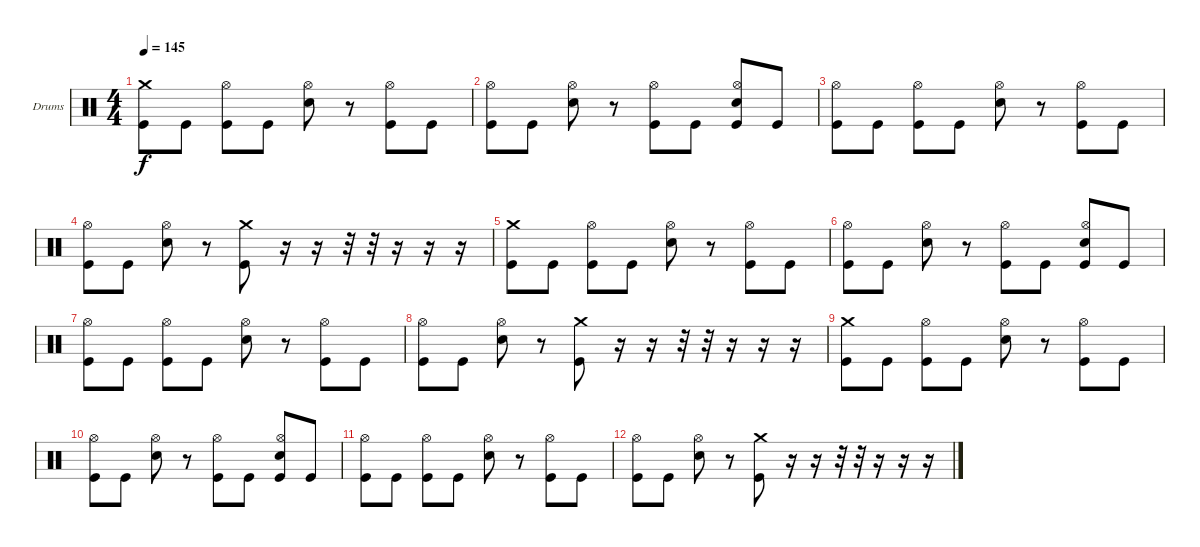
\bracketExtendMode groupsimilarinstruments
\firstSystemTrackNameOrientation horizontal
\otherSystemsTrackNameOrientation horizontal
\track ("Drumkit" "Drums") {instrument percussion}
\staff {score}
\articulation defaults
\ts (4 4)
\tempo 145
\clef neutral
\ks c
("Crash medium (hit)" "Kick (hit)").8{dy f} "Kick (hit)".8 ("Hi-Hat (open)" "Kick (hit)").8 "Kick (hit)".8 ("Hi-Hat (open)" "Snare (hit) 2").8 r.8 ("Hi-Hat (open)" "Kick (hit)").8 "Kick (hit)".8 |
("Hi-Hat (open)" "Kick (hit)").8 "Kick (hit)".8 ("Hi-Hat (open)" "Snare (hit) 2").8 r.8 ("Hi-Hat (open)" "Kick (hit)").8 "Kick (hit)".8 ("Hi-Hat (open)" "Snare (hit) 2" "Kick (hit)").8 "Kick (hit)".8 |
("Hi-Hat (open)" "Kick (hit)").8 "Kick (hit)".8 ("Hi-Hat (open)" "Kick (hit)").8 "Kick (hit)".8 ("Hi-Hat (open)" "Snare (hit) 2").8 r.8 ("Hi-Hat (open)" "Kick (hit)").8 "Kick (hit)".8 |
("Hi-Hat (open)" "Kick (hit)").8 "Kick (hit)".8 ("Hi-Hat (open)" "Snare (hit) 2").8 r.8 ("Crash medium (hit)" "Kick (hit)").8 r.16 r.16 r.32 r.32 r.16 r.16 r.16 |
("Crash medium (hit)" "Kick (hit)").8 "Kick (hit)".8 ("Hi-Hat (open)" "Kick (hit)").8 "Kick (hit)".8 ("Hi-Hat (open)" "Snare (hit) 2").8 r.8 ("Hi-Hat (open)" "Kick (hit)").8 "Kick (hit)".8 |
("Hi-Hat (open)" "Kick (hit)").8 "Kick (hit)".8 ("Hi-Hat (open)" "Snare (hit) 2").8 r.8 ("Hi-Hat (open)" "Kick (hit)").8 "Kick (hit)".8 ("Hi-Hat (open)" "Snare (hit) 2" "Kick (hit)").8 "Kick (hit)".8 |
("Hi-Hat (open)" "Kick (hit)").8 "Kick (hit)".8 ("Hi-Hat (open)" "Kick (hit)").8 "Kick (hit)".8 ("Hi-Hat (open)" "Snare (hit) 2").8 r.8 ("Hi-Hat (open)" "Kick (hit)").8 "Kick (hit)".8 |
("Hi-Hat (open)" "Kick (hit)").8 "Kick (hit)".8 ("Hi-Hat (open)" "Snare (hit) 2").8 r.8 ("Crash medium (hit)" "Kick (hit)").8 r.16 r.16 r.32 r.32 r.16 r.16 r.16 |
("Crash medium (hit)" "Kick (hit)").8 "Kick (hit)".8 ("Hi-Hat (open)" "Kick (hit)").8 "Kick (hit)".8 ("Hi-Hat (open)" "Snare (hit) 2").8 r.8 ("Hi-Hat (open)" "Kick (hit)").8 "Kick (hit)".8 |
("Hi-Hat (open)" "Kick (hit)").8 "Kick (hit)".8 ("Hi-Hat (open)" "Snare (hit) 2").8 r.8 ("Hi-Hat (open)" "Kick (hit)").8 "Kick (hit)".8 ("Hi-Hat (open)" "Snare (hit) 2" "Kick (hit)").8 "Kick (hit)".8 |
("Hi-Hat (open)" "Kick (hit)").8 "Kick (hit)".8 ("Hi-Hat (open)" "Kick (hit)").8 "Kick (hit)".8 ("Hi-Hat (open)" "Snare (hit) 2").8 r.8 ("Hi-Hat (open)" "Kick (hit)").8 "Kick (hit)".8 |
("Hi-Hat (open)" "Kick (hit)").8 "Kick (hit)".8 ("Hi-Hat (open)" "Snare (hit) 2").8 r.8 ("Crash medium (hit)" "Kick (hit)").8 r.16 r.16 r.32 r.32 r.16 r.16 r.16
